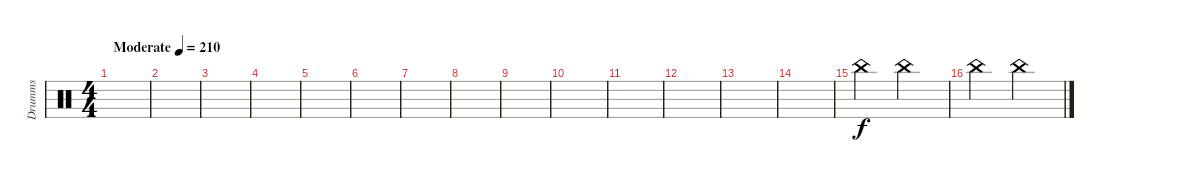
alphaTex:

\track ("Drumms" "Drumms") {instrument percussion}
\staff {score}
\articulation defaults
\ts (4 4)
\tempo (210 "Moderate")
\clef neutral
\ks c
|
|
|
|
|
|
|
|
|
|
|
|
|
|
"China (hit)".2 "China (hit)".2 |
"China (hit)".2 "China (hit)".2
